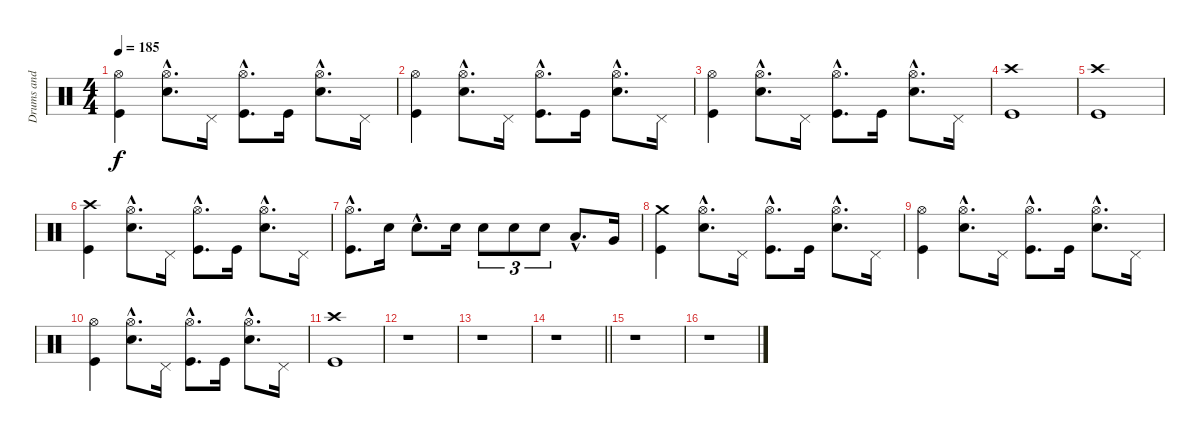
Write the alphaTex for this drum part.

\track ("Drums and percussion" "Drums and ") {instrument percussion}
\staff {score}
\articulation defaults
\ts (4 4)
\tempo 185
\clef neutral
\ks c
("Hi-Hat (open)" "Kick (hit)").4{dy f} ("Hi-Hat (open)"{hac} "Snare (hit) 2"{hac}).8{d} "Pedal Hi-Hat (hit)".16 ("Hi-Hat (open)"{hac} "Kick (hit)"{hac}).8{d} "Kick (hit)".16 ("Hi-Hat (open)"{hac} "Snare (hit) 2"{hac}).8{d} "Pedal Hi-Hat (hit)".16 |
("Hi-Hat (open)" "Kick (hit)").4 ("Hi-Hat (open)"{hac} "Snare (hit) 2"{hac}).8{d} "Pedal Hi-Hat (hit)".16 ("Hi-Hat (open)"{hac} "Kick (hit)"{hac}).8{d} "Kick (hit)".16 ("Hi-Hat (open)"{hac} "Snare (hit) 2"{hac}).8{d} "Pedal Hi-Hat (hit)".16 |
("Hi-Hat (open)" "Kick (hit)").4 ("Hi-Hat (open)"{hac} "Snare (hit) 2"{hac}).8{d} "Pedal Hi-Hat (hit)".16 ("Hi-Hat (open)"{hac} "Kick (hit)"{hac}).8{d} "Kick (hit)".16 ("Hi-Hat (open)"{hac} "Snare (hit) 2"{hac}).8{d} "Pedal Hi-Hat (hit)".16 |
("Crash high (hit)" "Kick (hit)").1 |
("Crash high (hit)" "Kick (hit)").1 |
("Crash high (hit)" "Kick (hit)").4 ("Hi-Hat (open)"{hac} "Snare (hit) 2"{hac}).8{d} "Pedal Hi-Hat (hit)".16 ("Hi-Hat (open)"{hac} "Kick (hit)"{hac}).8{d} "Kick (hit)".16 ("Hi-Hat (open)"{hac} "Snare (hit) 2"{hac}).8{d} "Pedal Hi-Hat (hit)".16 |
("Hi-Hat (open)"{hac} "Kick (hit)"{hac}).8{d} "Snare (hit) 2".16 "Snare (hit) 2"{hac}.8{d} "Snare (hit) 2".16 "Snare (hit) 2".8{tu (3 2)} "Snare (hit) 2".8{tu (3 2)} "Snare (hit) 2".8{tu (3 2)} "Low Tom (hit)"{hac}.8{d} "Very Low Tom (hit)".16 |
("Crash medium (hit)" "Kick (hit)").4 ("Hi-Hat (open)"{hac} "Snare (hit) 2"{hac}).8{d} "Pedal Hi-Hat (hit)".16 ("Hi-Hat (open)"{hac} "Kick (hit)"{hac}).8{d} "Kick (hit)".16 ("Hi-Hat (open)"{hac} "Snare (hit) 2"{hac}).8{d} "Pedal Hi-Hat (hit)".16 |
("Hi-Hat (open)" "Kick (hit)").4 ("Hi-Hat (open)"{hac} "Snare (hit) 2"{hac}).8{d} "Pedal Hi-Hat (hit)".16 ("Hi-Hat (open)"{hac} "Kick (hit)"{hac}).8{d} "Kick (hit)".16 ("Hi-Hat (open)"{hac} "Snare (hit) 2"{hac}).8{d} "Pedal Hi-Hat (hit)".16 |
("Hi-Hat (open)" "Kick (hit)").4 ("Hi-Hat (open)"{hac} "Snare (hit) 2"{hac}).8{d} "Pedal Hi-Hat (hit)".16 ("Hi-Hat (open)"{hac} "Kick (hit)"{hac}).8{d} "Kick (hit)".16 ("Hi-Hat (open)"{hac} "Snare (hit) 2"{hac}).8{d} "Pedal Hi-Hat (hit)".16 |
("Crash high (hit)" "Kick (hit)").1 |
r.1 |
r.1 |
\barLineRight lightlight
r.1 |
r.1 |
r.1
